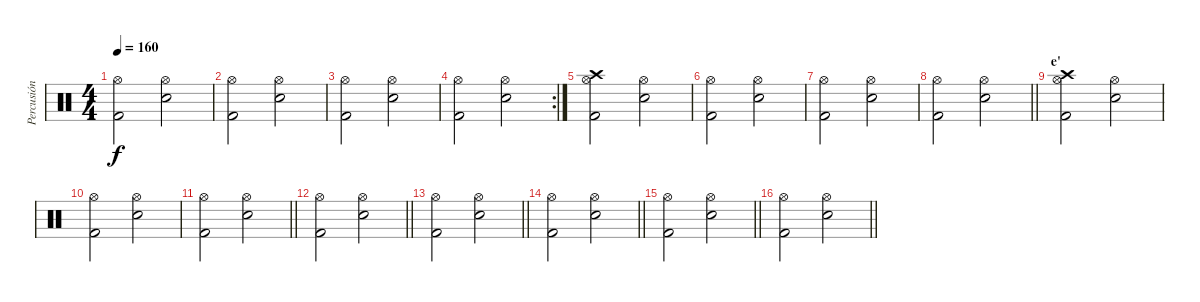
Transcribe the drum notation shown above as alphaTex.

\track ("Percusión" "Percusión") {instrument percussion}
\staff {score}
\articulation defaults
\ts (4 4)
\tempo 160
\clef neutral
\ks c
("Hi-Hat (open)" "Kick (hit) 2").2{dy f} ("Snare (hit) 2" "Hi-Hat (open)").2 |
("Hi-Hat (open)" "Kick (hit) 2").2 ("Snare (hit) 2" "Hi-Hat (open)").2 |
("Hi-Hat (open)" "Kick (hit) 2").2 ("Snare (hit) 2" "Hi-Hat (open)").2 |
\rc 2
("Hi-Hat (open)" "Kick (hit) 2").2 ("Snare (hit) 2" "Hi-Hat (open)").2 |
("Hi-Hat (open)" "Kick (hit) 2" "Crash high (hit)").2 ("Snare (hit) 2" "Hi-Hat (open)").2 |
("Hi-Hat (open)" "Kick (hit) 2").2 ("Snare (hit) 2" "Hi-Hat (open)").2 |
("Hi-Hat (open)" "Kick (hit) 2").2 ("Snare (hit) 2" "Hi-Hat (open)").2 |
\barLineRight lightlight
("Hi-Hat (open)" "Kick (hit) 2").2 ("Snare (hit) 2" "Hi-Hat (open)").2 |
\section ("" "e'")
("Kick (hit) 2" "Hi-Hat (open)" "Crash high (hit)").2 ("Snare (hit) 2" "Hi-Hat (open)").2 |
("Kick (hit) 2" "Hi-Hat (open)").2 ("Snare (hit) 2" "Hi-Hat (open)").2 |
\barLineRight lightlight
("Kick (hit) 2" "Hi-Hat (open)").2 ("Snare (hit) 2" "Hi-Hat (open)").2 |
\barLineRight lightlight
("Kick (hit) 2" "Hi-Hat (open)").2 ("Snare (hit) 2" "Hi-Hat (open)").2 |
\barLineRight lightlight
("Kick (hit) 2" "Hi-Hat (open)").2 ("Snare (hit) 2" "Hi-Hat (open)").2 |
\barLineRight lightlight
("Kick (hit) 2" "Hi-Hat (open)").2 ("Snare (hit) 2" "Hi-Hat (open)").2 |
\barLineRight lightlight
("Kick (hit) 2" "Hi-Hat (open)").2 ("Snare (hit) 2" "Hi-Hat (open)").2 |
\barLineRight lightlight
("Kick (hit) 2" "Hi-Hat (open)").2 ("Snare (hit) 2" "Hi-Hat (open)").2
